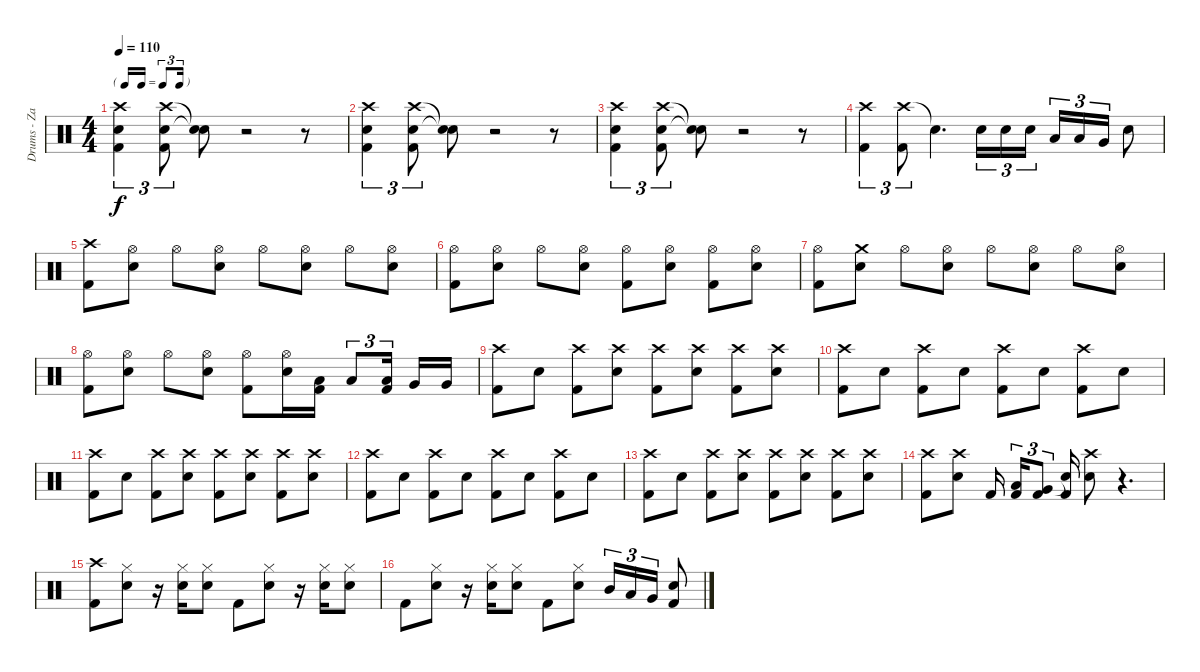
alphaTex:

\track ("Drums - Zac" "Drums - Za") {instrument percussion}
\staff {score}
\articulation defaults
\ts (4 4)
\tf triplet16th
\tempo 110
\clef neutral
\ks c
("Crash high (hit)" "Snare (hit) 2" "Kick (hit) 2").4{tu (3 2) dy f} ("Crash high (hit)" "Snare (hit) 2" "Kick (hit) 2").8{tu (3 2)} ("Snare (hit)"{t} "Snare (hit)"{t}).8 r.2{volume 0} r.8 |
("Crash high (hit)" "Snare (hit) 2" "Kick (hit) 2").4{tu (3 2) volume 12} ("Crash high (hit)" "Snare (hit) 2" "Kick (hit) 2").8{tu (3 2)} ("Snare (hit)"{t} "Snare (hit)"{t}).8 r.2{volume 0} r.8 |
("Crash high (hit)" "Snare (hit) 2" "Kick (hit) 2").4{tu (3 2) volume 12} ("Crash high (hit)" "Snare (hit) 2" "Kick (hit) 2").8{tu (3 2)} ("Snare (hit)"{t} "Snare (hit)"{t}).8 r.2{volume 0} r.8 |
("Crash high (hit)" "Kick (hit) 2").4{tu (3 2) volume 12} ("Crash high (hit)" "Kick (hit) 2").8{tu (3 2)} "Snare (hit)"{t}.4{d} "Snare (hit) 2".16{tu (3 2)} "Snare (hit) 2".16{tu (3 2)} "Snare (hit) 2".16{tu (3 2)} "Low Tom (hit)".16{tu (3 2)} "Low Tom (hit)".16{tu (3 2)} "Very Low Tom (hit)".16{tu (3 2)} "Snare (hit) 2".8 |
("Crash high (hit)" "Kick (hit) 2").8 ("Hi-Hat (open)" "Snare (hit) 2").8 "Hi-Hat (open)".8 ("Hi-Hat (open)" "Snare (hit) 2").8 "Hi-Hat (open)".8 ("Hi-Hat (open)" "Snare (hit) 2").8 "Hi-Hat (open)".8 ("Hi-Hat (open)" "Snare (hit) 2").8 |
("Hi-Hat (open)" "Kick (hit) 2").8 ("Hi-Hat (open)" "Snare (hit) 2").8 "Hi-Hat (open)".8 ("Hi-Hat (open)" "Snare (hit) 2").8 ("Hi-Hat (open)" "Kick (hit) 2").8 ("Hi-Hat (open)" "Snare (hit) 2").8 ("Hi-Hat (open)" "Kick (hit) 2").8 ("Hi-Hat (open)" "Snare (hit) 2").8 |
("Hi-Hat (open)" "Kick (hit) 2").8 ("Crash medium (hit)" "Snare (hit) 2").8 "Hi-Hat (open)".8 ("Hi-Hat (open)" "Snare (hit) 2").8 "Hi-Hat (open)".8 ("Hi-Hat (open)" "Snare (hit) 2").8 "Hi-Hat (open)".8 ("Hi-Hat (open)" "Snare (hit) 2").8 |
("Hi-Hat (open)" "Kick (hit) 2").8 ("Hi-Hat (open)" "Snare (hit) 2").8 "Hi-Hat (open)".8 ("Hi-Hat (open)" "Snare (hit) 2").8 ("Hi-Hat (open)" "Kick (hit) 2").8 ("Hi-Hat (open)" "Snare (hit) 2").16 ("Low Tom (hit)" "Kick (hit) 2").16 "Low Tom (hit)".8{tu (3 2)} ("Low Tom (hit)" "Kick (hit) 2").16{tu (3 2) beam splitsecondary} "Very Low Tom (hit)".16 "Very Low Tom (hit)".16 |
("Crash high (hit)" "Kick (hit) 2").8 "Snare (hit) 2".8 ("Crash high (hit)" "Kick (hit) 2").8 ("Crash high (hit)" "Snare (hit) 2").8 ("Crash high (hit)" "Kick (hit) 2").8 ("Crash high (hit)" "Snare (hit) 2").8 ("Crash high (hit)" "Kick (hit) 2").8 ("Crash high (hit)" "Snare (hit) 2").8 |
("Crash high (hit)" "Kick (hit) 2").8 "Snare (hit) 2".8 ("Crash high (hit)" "Kick (hit) 2").8 "Snare (hit) 2".8 ("Crash high (hit)" "Kick (hit) 2").8 "Snare (hit) 2".8 ("Crash high (hit)" "Kick (hit) 2").8 "Snare (hit) 2".8 |
("Crash high (hit)" "Kick (hit) 2").8 "Snare (hit) 2".8 ("Crash high (hit)" "Kick (hit) 2").8 ("Crash high (hit)" "Snare (hit) 2").8 ("Crash high (hit)" "Kick (hit) 2").8 ("Crash high (hit)" "Snare (hit) 2").8 ("Crash high (hit)" "Kick (hit) 2").8 ("Crash high (hit)" "Snare (hit) 2").8 |
("Crash high (hit)" "Kick (hit) 2").8 "Snare (hit) 2".8 ("Crash high (hit)" "Kick (hit) 2").8 "Snare (hit) 2".8 ("Crash high (hit)" "Kick (hit) 2").8 "Snare (hit) 2".8 ("Crash high (hit)" "Kick (hit) 2").8 "Snare (hit) 2".8 |
("Crash high (hit)" "Kick (hit) 2").8 "Snare (hit) 2".8 ("Crash high (hit)" "Kick (hit) 2").8 ("Crash high (hit)" "Snare (hit) 2").8 ("Crash high (hit)" "Kick (hit) 2").8 ("Crash high (hit)" "Snare (hit) 2").8 ("Crash high (hit)" "Kick (hit) 2").8 ("Crash high (hit)" "Snare (hit) 2").8 |
("Crash high (hit)" "Kick (hit) 2").8 ("Crash high (hit)" "Snare (hit) 2").8 "Kick (hit) 2".16{beam splitsecondary} ("Low Tom (hit)" "Kick (hit) 2").16{tu (3 2)} ("Very Low Tom (hit)" "Kick (hit) 2").8{tu (3 2)} ("Snare (hit)"{t} "Kick (hit) 2").16 ("Crash high (hit)" "Snare (hit) 2").8 r.4{d volume 0} |
("Crash high (hit)" "Kick (hit) 2").8{volume 12} ("Hi-Hat (closed)" "Snare (hit) 2").8 r.16 ("Hi-Hat (closed)" "Snare (hit) 2").16 ("Hi-Hat (closed)" "Snare (hit) 2").8 "Kick (hit) 2".8 ("Hi-Hat (closed)" "Snare (hit) 2").8 r.16 ("Hi-Hat (closed)" "Snare (hit) 2").16 ("Hi-Hat (closed)" "Snare (hit) 2").8 |
"Kick (hit) 2".8 ("Hi-Hat (closed)" "Snare (hit) 2").8 r.16 ("Hi-Hat (closed)" "Snare (hit) 2").16 ("Hi-Hat (closed)" "Snare (hit) 2").8 "Kick (hit) 2".8 ("Hi-Hat (closed)" "Snare (hit) 2").8 "Mid Tom (hit)".16{tu (3 2)} "Low Tom (hit)".16{tu (3 2)} "Very Low Tom (hit)".16{tu (3 2)} ("Snare (hit) 2" "Kick (hit) 2").8
